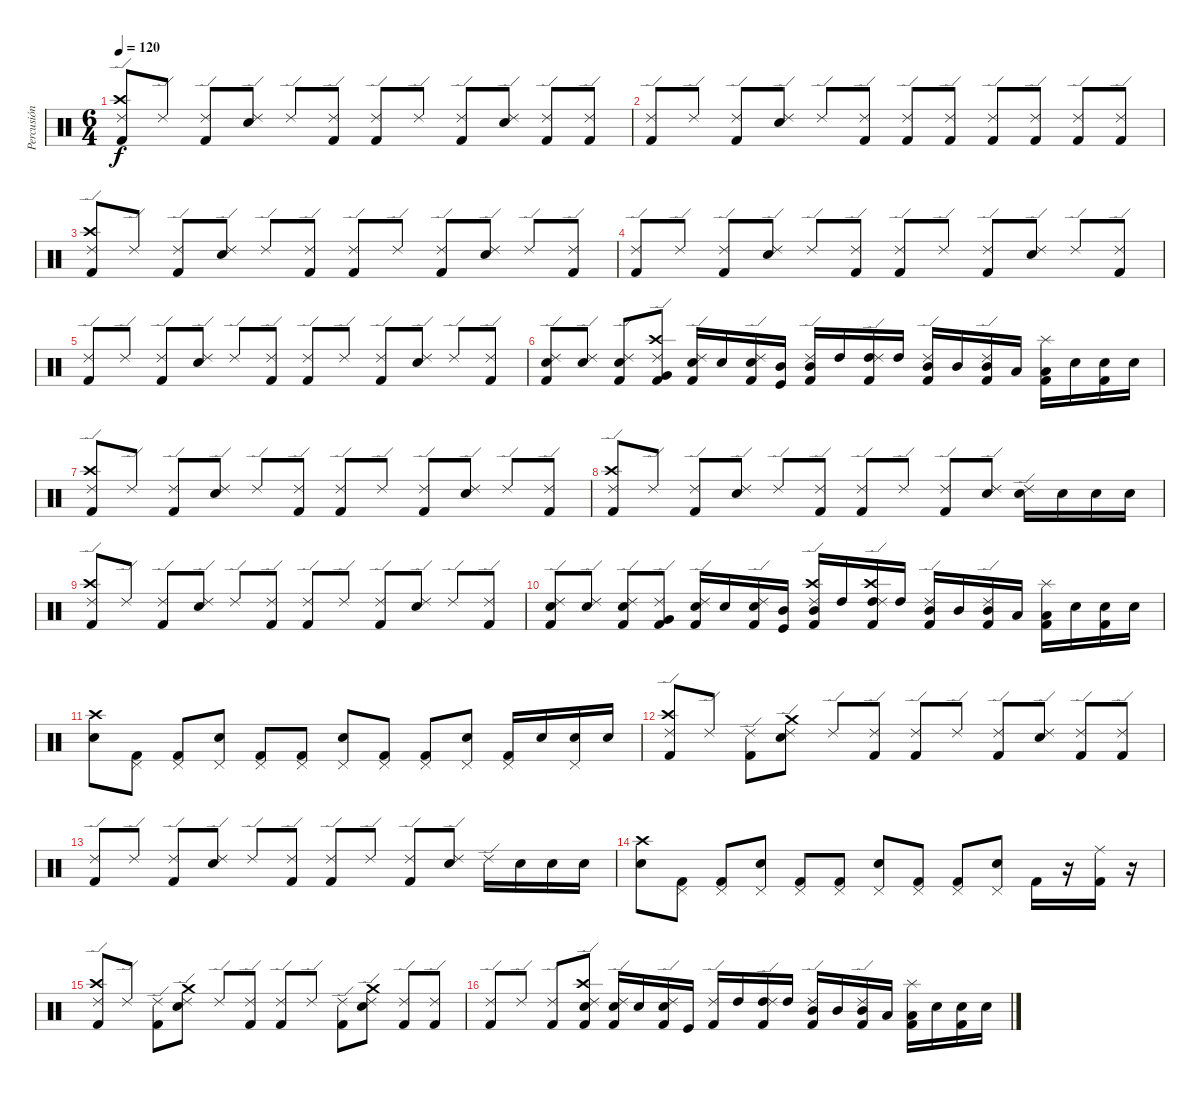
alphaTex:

\track ("Percusión" "Percusión") {instrument percussion}
\staff {score}
\articulation defaults
\ts (6 4)
\tempo 120
\clef neutral
\ks c
("Kick (hit) 2" "Crash high (hit)" "Ride (edge) 2").8{dy f} "Ride (edge) 2".8 ("Kick (hit) 2" "Ride (edge) 2").8 ("Snare (hit) 2" "Ride (edge) 2").8 "Ride (edge) 2".8 ("Kick (hit) 2" "Ride (edge) 2").8 ("Kick (hit) 2" "Ride (edge) 2").8 "Ride (edge) 2".8 ("Kick (hit) 2" "Ride (edge) 2").8 ("Snare (hit) 2" "Ride (edge) 2").8 ("Kick (hit) 2" "Ride (edge) 2").8 ("Kick (hit) 2" "Ride (edge) 2").8 |
("Kick (hit) 2" "Ride (edge) 2").8 "Ride (edge) 2".8 ("Kick (hit) 2" "Ride (edge) 2").8 ("Snare (hit) 2" "Ride (edge) 2").8 "Ride (edge) 2".8 ("Kick (hit) 2" "Ride (edge) 2").8 ("Kick (hit) 2" "Ride (edge) 2").8 ("Kick (hit) 2" "Ride (edge) 2").8 ("Kick (hit) 2" "Ride (edge) 2").8 ("Kick (hit) 2" "Ride (edge) 2").8 ("Kick (hit) 2" "Ride (edge) 2").8 ("Kick (hit) 2" "Ride (edge) 2").8 |
("Kick (hit) 2" "Crash high (hit)" "Ride (edge) 2").8 "Ride (edge) 2".8 ("Kick (hit) 2" "Ride (edge) 2").8 ("Snare (hit) 2" "Ride (edge) 2").8 "Ride (edge) 2".8 ("Kick (hit) 2" "Ride (edge) 2").8 ("Kick (hit) 2" "Ride (edge) 2").8 "Ride (edge) 2".8 ("Kick (hit) 2" "Ride (edge) 2").8 ("Snare (hit) 2" "Ride (edge) 2").8 "Ride (edge) 2".8 ("Kick (hit) 2" "Ride (edge) 2").8 |
("Kick (hit) 2" "Ride (edge) 2").8 "Ride (edge) 2".8 ("Kick (hit) 2" "Ride (edge) 2").8 ("Snare (hit) 2" "Ride (edge) 2").8 "Ride (edge) 2".8 ("Kick (hit) 2" "Ride (edge) 2").8 ("Kick (hit) 2" "Ride (edge) 2").8 "Ride (edge) 2".8 ("Kick (hit) 2" "Ride (edge) 2").8 ("Snare (hit) 2" "Ride (edge) 2").8 "Ride (edge) 2".8 ("Kick (hit) 2" "Ride (edge) 2").8 |
("Kick (hit) 2" "Ride (edge) 2").8 "Ride (edge) 2".8 ("Kick (hit) 2" "Ride (edge) 2").8 ("Snare (hit) 2" "Ride (edge) 2").8 "Ride (edge) 2".8 ("Kick (hit) 2" "Ride (edge) 2").8 ("Kick (hit) 2" "Ride (edge) 2").8 "Ride (edge) 2".8 ("Kick (hit) 2" "Ride (edge) 2").8 ("Snare (hit) 2" "Ride (edge) 2").8 "Ride (edge) 2".8 ("Kick (hit) 2" "Ride (edge) 2").8 |
("Kick (hit) 2" "Snare (hit) 2" "Ride (edge) 2").8 ("Snare (hit) 2" "Ride (edge) 2").8 ("Kick (hit) 2" "Snare (hit) 2" "Ride (edge) 2").8 ("Kick (hit) 2" "Very Low Tom (hit)" "Crash high (hit)" "Ride (edge) 2").8 ("Kick (hit) 2" "Snare (hit) 2" "Ride (edge) 2").16 "Snare (hit) 2".16 ("Kick (hit) 2" "Snare (hit) 2" "Ride (edge) 2").16 ("Kick (hit)" "Mid Tom (hit)").16 ("Kick (hit) 2" "Mid Tom (hit)" "Ride (edge) 2").16 "High Tom (hit)".16 ("Kick (hit) 2" "High Tom (hit)" "Ride (edge) 2").16 "High Tom (hit)".16 ("Kick (hit) 2" "Mid Tom (hit)" "Ride (edge) 2").16 "Mid Tom (hit)".16 ("Kick (hit) 2" "Mid Tom (hit)" "Ride (edge) 2").16 "Low Tom (hit)".16 ("Kick (hit) 2" "Low Tom (hit)" "Splash (hit)").16 "Snare (hit) 2".16 ("Kick (hit) 2" "Snare (hit) 2").16 "Snare (hit) 2".16 |
("Kick (hit) 2" "Crash high (hit)" "Ride (edge) 2").8 "Ride (edge) 2".8 ("Kick (hit) 2" "Ride (edge) 2").8 ("Snare (hit) 2" "Ride (edge) 2").8 "Ride (edge) 2".8 ("Kick (hit) 2" "Ride (edge) 2").8 ("Kick (hit) 2" "Ride (edge) 2").8 "Ride (edge) 2".8 ("Kick (hit) 2" "Ride (edge) 2").8 ("Snare (hit) 2" "Ride (edge) 2").8 "Ride (edge) 2".8 ("Kick (hit) 2" "Ride (edge) 2").8 |
("Kick (hit) 2" "Crash high (hit)" "Ride (edge) 2").8 "Ride (edge) 2".8 ("Kick (hit) 2" "Ride (edge) 2").8 ("Snare (hit) 2" "Ride (edge) 2").8 "Ride (edge) 2".8 ("Kick (hit) 2" "Ride (edge) 2").8 ("Kick (hit) 2" "Ride (edge) 2").8 "Ride (edge) 2".8 ("Kick (hit) 2" "Ride (edge) 2").8 ("Snare (hit) 2" "Ride (edge) 2").8 ("Snare (hit) 2" "Ride (edge) 2").16 "Snare (hit) 2".16 "Snare (hit) 2".16 "Snare (hit) 2".16 |
("Kick (hit) 2" "Crash high (hit)" "Ride (edge) 2").8 "Ride (edge) 2".8 ("Kick (hit) 2" "Ride (edge) 2").8 ("Snare (hit) 2" "Ride (edge) 2").8 "Ride (edge) 2".8 ("Kick (hit) 2" "Ride (edge) 2").8 ("Kick (hit) 2" "Ride (edge) 2").8 "Ride (edge) 2".8 ("Kick (hit) 2" "Ride (edge) 2").8 ("Snare (hit) 2" "Ride (edge) 2").8 "Ride (edge) 2".8 ("Kick (hit) 2" "Ride (edge) 2").8 |
("Kick (hit) 2" "Snare (hit) 2" "Ride (edge) 2").8 ("Snare (hit) 2" "Ride (edge) 2").8 ("Kick (hit) 2" "Snare (hit) 2" "Ride (edge) 2").8 ("Kick (hit) 2" "Very Low Tom (hit)" "Ride (edge) 2").8 ("Kick (hit) 2" "Snare (hit) 2" "Ride (edge) 2").16 "Snare (hit) 2".16 ("Kick (hit) 2" "Snare (hit) 2" "Ride (edge) 2").16 ("Kick (hit)" "Mid Tom (hit)").16 ("Kick (hit) 2" "Mid Tom (hit)" "Crash high (hit)" "Ride (edge) 2").16 "High Tom (hit)".16 ("Kick (hit) 2" "High Tom (hit)" "Crash high (hit)" "Ride (edge) 2").16 "High Tom (hit)".16 ("Kick (hit) 2" "Mid Tom (hit)" "Ride (edge) 2").16 "Mid Tom (hit)".16 ("Kick (hit) 2" "Mid Tom (hit)" "Ride (edge) 2").16 "Low Tom (hit)".16 ("Kick (hit) 2" "Low Tom (hit)" "Splash (hit)").16 "Snare (hit) 2".16 ("Kick (hit) 2" "Snare (hit) 2").16 "Snare (hit) 2".16 |
("Snare (hit) 2" "Crash high (hit)").8 ("Kick (hit) 2" "Pedal Hi-Hat (hit)").8 ("Kick (hit) 2" "Pedal Hi-Hat (hit)").8 ("Snare (hit) 2" "Pedal Hi-Hat (hit)").8 ("Kick (hit) 2" "Pedal Hi-Hat (hit)").8 ("Kick (hit) 2" "Pedal Hi-Hat (hit)").8 ("Snare (hit) 2" "Pedal Hi-Hat (hit)").8 ("Kick (hit) 2" "Pedal Hi-Hat (hit)").8 ("Kick (hit) 2" "Pedal Hi-Hat (hit)").8 ("Snare (hit) 2" "Pedal Hi-Hat (hit)").8 ("Kick (hit) 2" "Pedal Hi-Hat (hit)").16 "Snare (hit) 2".16 ("Snare (hit) 2" "Pedal Hi-Hat (hit)").16 "Snare (hit) 2".16 |
("Kick (hit) 2" "Crash high (hit)" "Ride (edge) 2").8 "Ride (edge) 2".8 ("Kick (hit) 2" "Ride (edge) 2").8 ("Snare (hit) 2" "Crash medium (hit)" "Ride (edge) 2").8 "Ride (edge) 2".8 ("Kick (hit) 2" "Ride (edge) 2").8 ("Kick (hit) 2" "Ride (edge) 2").8 "Ride (edge) 2".8 ("Kick (hit) 2" "Ride (edge) 2").8 ("Snare (hit) 2" "Ride (edge) 2").8 ("Kick (hit) 2" "Ride (edge) 2").8 ("Kick (hit) 2" "Ride (edge) 2").8 |
("Kick (hit) 2" "Ride (edge) 2").8 "Ride (edge) 2".8 ("Kick (hit) 2" "Ride (edge) 2").8 ("Snare (hit) 2" "Ride (edge) 2").8 "Ride (edge) 2".8 ("Kick (hit) 2" "Ride (edge) 2").8 ("Kick (hit) 2" "Ride (edge) 2").8 "Ride (edge) 2".8 ("Kick (hit) 2" "Ride (edge) 2").8 ("Snare (hit) 2" "Ride (edge) 2").8 "Ride (edge) 2".16 "Snare (hit) 2".16 "Snare (hit) 2".16 "Snare (hit) 2".16 |
("Snare (hit) 2" "Crash high (hit)").8 ("Kick (hit) 2" "Pedal Hi-Hat (hit)").8 ("Kick (hit) 2" "Pedal Hi-Hat (hit)").8 ("Snare (hit) 2" "Pedal Hi-Hat (hit)").8 ("Kick (hit) 2" "Pedal Hi-Hat (hit)").8 ("Kick (hit) 2" "Pedal Hi-Hat (hit)").8 ("Snare (hit) 2" "Pedal Hi-Hat (hit)").8 ("Kick (hit) 2" "Pedal Hi-Hat (hit)").8 ("Kick (hit) 2" "Pedal Hi-Hat (hit)").8 ("Snare (hit) 2" "Pedal Hi-Hat (hit)").8 "Kick (hit) 2".16 r.16 ("Kick (hit) 2" "Ride (middle)").16 r.16 |
("Kick (hit) 2" "Crash high (hit)" "Ride (edge) 2").8 "Ride (edge) 2".8 ("Kick (hit) 2" "Ride (edge) 2").8 ("Snare (hit) 2" "Crash medium (hit)" "Ride (edge) 2").8 "Ride (edge) 2".8 ("Kick (hit) 2" "Ride (edge) 2").8 ("Kick (hit) 2" "Ride (edge) 2").8 "Ride (edge) 2".8 ("Kick (hit) 2" "Ride (edge) 2").8 ("Snare (hit) 2" "Crash medium (hit)" "Ride (edge) 2").8 ("Kick (hit) 2" "Ride (edge) 2").8 ("Kick (hit) 2" "Ride (edge) 2").8 |
("Kick (hit) 2" "Ride (edge) 2").8 "Ride (edge) 2".8 ("Kick (hit) 2" "Ride (edge) 2").8 ("Kick (hit) 2" "Snare (hit) 2" "Crash high (hit)" "Ride (edge) 2").8 ("Kick (hit) 2" "Snare (hit) 2" "Ride (edge) 2").16 "Snare (hit) 2".16 ("Kick (hit) 2" "Snare (hit) 2" "Ride (edge) 2").16 "Kick (hit)".16 ("Kick (hit) 2" "Ride (edge) 2").16 "High Tom (hit)".16 ("Kick (hit) 2" "High Tom (hit)" "Ride (edge) 2").16 "High Tom (hit)".16 ("Kick (hit) 2" "Mid Tom (hit)" "Ride (edge) 2").16 "Mid Tom (hit)".16 ("Kick (hit) 2" "Mid Tom (hit)" "Ride (edge) 2").16 "Low Tom (hit)".16 ("Kick (hit) 2" "Low Tom (hit)" "Splash (hit)").16 "Snare (hit) 2".16 ("Kick (hit) 2" "Snare (hit) 2").16 "Snare (hit) 2".16
